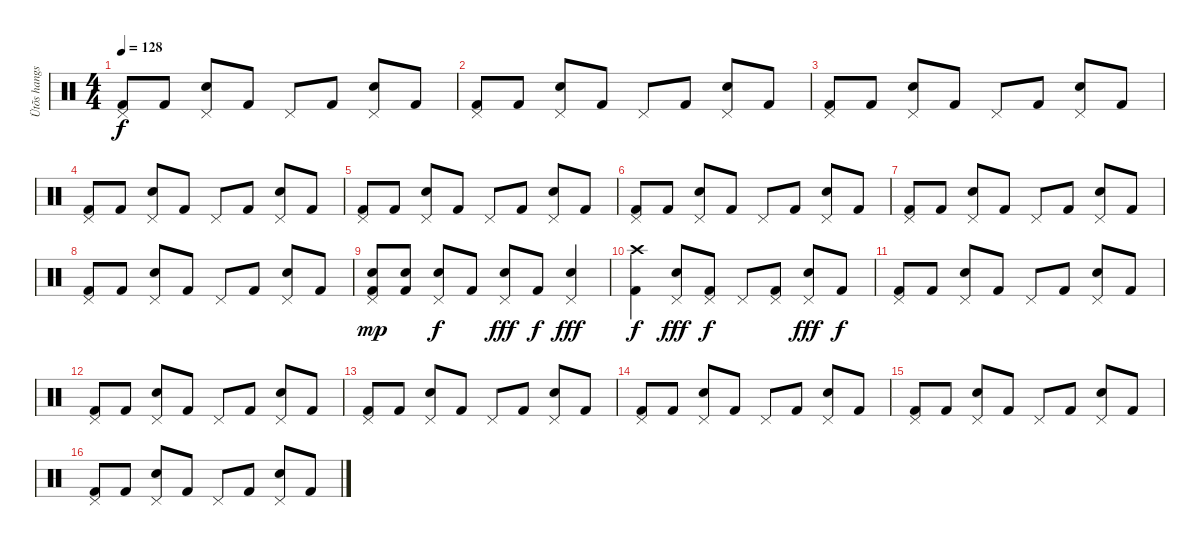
\track ("Ütõs hangszer" "Ütõs hangs") {instrument percussion}
\staff {score}
\articulation defaults
\ts (4 4)
\tempo 128
\clef neutral
\ks c
("Kick (hit) 2" "Pedal Hi-Hat (hit)").8{dy f} "Kick (hit) 2".8 ("Electric Snare (hit)" "Pedal Hi-Hat (hit)").8 "Kick (hit) 2".8 "Pedal Hi-Hat (hit)".8 "Kick (hit) 2".8 ("Electric Snare (hit)" "Pedal Hi-Hat (hit)").8 "Kick (hit) 2".8 |
("Kick (hit) 2" "Pedal Hi-Hat (hit)").8 "Kick (hit) 2".8 ("Electric Snare (hit)" "Pedal Hi-Hat (hit)").8 "Kick (hit) 2".8 "Pedal Hi-Hat (hit)".8 "Kick (hit) 2".8 ("Electric Snare (hit)" "Pedal Hi-Hat (hit)").8 "Kick (hit) 2".8 |
("Kick (hit) 2" "Pedal Hi-Hat (hit)").8 "Kick (hit) 2".8 ("Electric Snare (hit)" "Pedal Hi-Hat (hit)").8 "Kick (hit) 2".8 "Pedal Hi-Hat (hit)".8 "Kick (hit) 2".8 ("Electric Snare (hit)" "Pedal Hi-Hat (hit)").8 "Kick (hit) 2".8 |
("Kick (hit) 2" "Pedal Hi-Hat (hit)").8 "Kick (hit) 2".8 ("Electric Snare (hit)" "Pedal Hi-Hat (hit)").8 "Kick (hit) 2".8 "Pedal Hi-Hat (hit)".8 "Kick (hit) 2".8 ("Electric Snare (hit)" "Pedal Hi-Hat (hit)").8 "Kick (hit) 2".8 |
("Kick (hit) 2" "Pedal Hi-Hat (hit)").8 "Kick (hit) 2".8 ("Electric Snare (hit)" "Pedal Hi-Hat (hit)").8 "Kick (hit) 2".8 "Pedal Hi-Hat (hit)".8 "Kick (hit) 2".8 ("Electric Snare (hit)" "Pedal Hi-Hat (hit)").8 "Kick (hit) 2".8 |
("Kick (hit) 2" "Pedal Hi-Hat (hit)").8 "Kick (hit) 2".8 ("Electric Snare (hit)" "Pedal Hi-Hat (hit)").8 "Kick (hit) 2".8 "Pedal Hi-Hat (hit)".8 "Kick (hit) 2".8 ("Electric Snare (hit)" "Pedal Hi-Hat (hit)").8 "Kick (hit) 2".8 |
("Kick (hit) 2" "Pedal Hi-Hat (hit)").8 "Kick (hit) 2".8 ("Electric Snare (hit)" "Pedal Hi-Hat (hit)").8 "Kick (hit) 2".8 "Pedal Hi-Hat (hit)".8 "Kick (hit) 2".8 ("Electric Snare (hit)" "Pedal Hi-Hat (hit)").8 "Kick (hit) 2".8 |
("Kick (hit) 2" "Pedal Hi-Hat (hit)").8 "Kick (hit) 2".8 ("Electric Snare (hit)" "Pedal Hi-Hat (hit)").8 "Kick (hit) 2".8 "Pedal Hi-Hat (hit)".8 "Kick (hit) 2".8 ("Electric Snare (hit)" "Pedal Hi-Hat (hit)").8 "Kick (hit) 2".8 |
("Electric Snare (hit)" "Kick (hit) 2" "Pedal Hi-Hat (hit)").8{dy mp} ("Electric Snare (hit)"{tr (40 16)} "Kick (hit) 2").8 ("Electric Snare (hit)" "Pedal Hi-Hat (hit)").8{dy f} "Kick (hit) 2".8 ("Electric Snare (hit)" "Pedal Hi-Hat (hit)").8{dy fff} "Kick (hit) 2".8{dy f} ("Electric Snare (hit)"{tr (40 16)} "Pedal Hi-Hat (hit)").4{dy fff} |
("Kick (hit) 2" "Crash high (hit)").4{dy f} ("Electric Snare (hit)" "Pedal Hi-Hat (hit)").8{dy fff} ("Kick (hit) 2" "Pedal Hi-Hat (hit)").8{dy f} "Pedal Hi-Hat (hit)".8 ("Kick (hit) 2" "Pedal Hi-Hat (hit)").8 ("Electric Snare (hit)" "Pedal Hi-Hat (hit)").8{dy fff} "Kick (hit) 2".8{dy f} |
("Kick (hit) 2" "Pedal Hi-Hat (hit)").8 "Kick (hit) 2".8 ("Electric Snare (hit)" "Pedal Hi-Hat (hit)").8 "Kick (hit) 2".8 "Pedal Hi-Hat (hit)".8 "Kick (hit) 2".8 ("Electric Snare (hit)" "Pedal Hi-Hat (hit)").8 "Kick (hit) 2".8 |
("Kick (hit) 2" "Pedal Hi-Hat (hit)").8 "Kick (hit) 2".8 ("Electric Snare (hit)" "Pedal Hi-Hat (hit)").8 "Kick (hit) 2".8 "Pedal Hi-Hat (hit)".8 "Kick (hit) 2".8 ("Electric Snare (hit)" "Pedal Hi-Hat (hit)").8 "Kick (hit) 2".8 |
("Kick (hit) 2" "Pedal Hi-Hat (hit)").8 "Kick (hit) 2".8 ("Electric Snare (hit)" "Pedal Hi-Hat (hit)").8 "Kick (hit) 2".8 "Pedal Hi-Hat (hit)".8 "Kick (hit) 2".8 ("Electric Snare (hit)" "Pedal Hi-Hat (hit)").8 "Kick (hit) 2".8 |
("Kick (hit) 2" "Pedal Hi-Hat (hit)").8 "Kick (hit) 2".8 ("Electric Snare (hit)" "Pedal Hi-Hat (hit)").8 "Kick (hit) 2".8 "Pedal Hi-Hat (hit)".8 "Kick (hit) 2".8 ("Electric Snare (hit)" "Pedal Hi-Hat (hit)").8 "Kick (hit) 2".8 |
("Kick (hit) 2" "Pedal Hi-Hat (hit)").8 "Kick (hit) 2".8 ("Electric Snare (hit)" "Pedal Hi-Hat (hit)").8 "Kick (hit) 2".8 "Pedal Hi-Hat (hit)".8 "Kick (hit) 2".8 ("Electric Snare (hit)" "Pedal Hi-Hat (hit)").8 "Kick (hit) 2".8 |
("Kick (hit) 2" "Pedal Hi-Hat (hit)").8 "Kick (hit) 2".8 ("Electric Snare (hit)" "Pedal Hi-Hat (hit)").8 "Kick (hit) 2".8 "Pedal Hi-Hat (hit)".8 "Kick (hit) 2".8 ("Electric Snare (hit)" "Pedal Hi-Hat (hit)").8 "Kick (hit) 2".8
